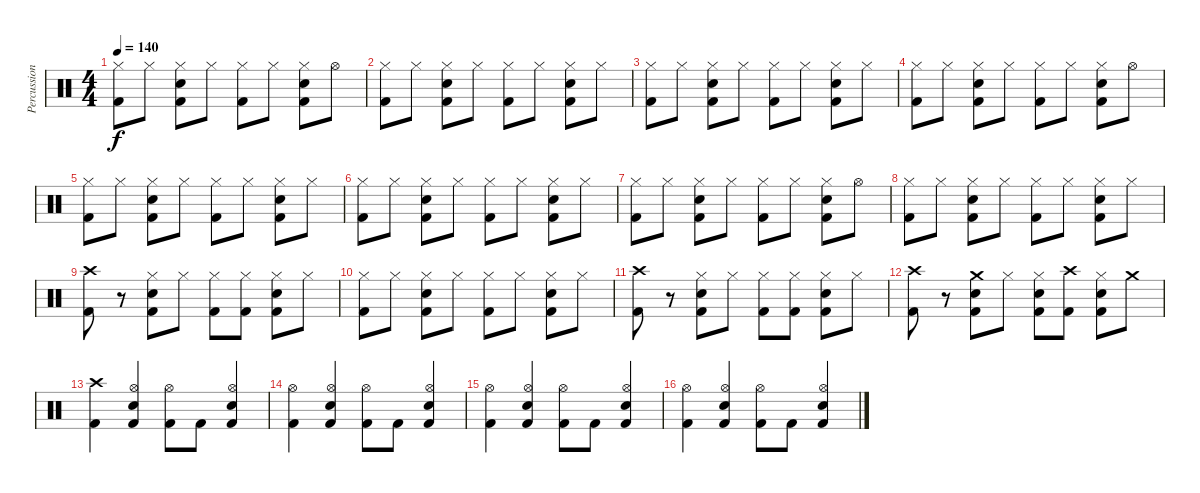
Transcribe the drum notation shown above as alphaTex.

\track ("Percussions" "Percussion") {instrument percussion}
\staff {score}
\articulation defaults
\ts (4 4)
\tempo 140
\clef neutral
\ks c
("Hi-Hat (closed)" "Kick (hit) 2").8{dy f} "Hi-Hat (closed)".8 ("Hi-Hat (closed)" "Snare (hit) 2" "Kick (hit) 2").8 "Hi-Hat (closed)".8 ("Hi-Hat (closed)" "Kick (hit) 2").8 "Hi-Hat (closed)".8 ("Hi-Hat (closed)" "Snare (hit) 2" "Kick (hit) 2").8 "Hi-Hat (open)".8 |
("Hi-Hat (closed)" "Kick (hit) 2").8 "Hi-Hat (closed)".8 ("Hi-Hat (closed)" "Snare (hit) 2" "Kick (hit) 2").8 "Hi-Hat (closed)".8 ("Hi-Hat (closed)" "Kick (hit) 2").8 "Hi-Hat (closed)".8 ("Hi-Hat (closed)" "Snare (hit) 2" "Kick (hit) 2").8 "Hi-Hat (closed)".8 |
("Hi-Hat (closed)" "Kick (hit) 2").8 "Hi-Hat (closed)".8 ("Hi-Hat (closed)" "Snare (hit) 2" "Kick (hit) 2").8 "Hi-Hat (closed)".8 ("Hi-Hat (closed)" "Kick (hit) 2").8 "Hi-Hat (closed)".8 ("Hi-Hat (closed)" "Snare (hit) 2" "Kick (hit) 2").8 "Hi-Hat (closed)".8 |
("Hi-Hat (closed)" "Kick (hit) 2").8 "Hi-Hat (closed)".8 ("Hi-Hat (closed)" "Snare (hit) 2" "Kick (hit) 2").8 "Hi-Hat (closed)".8 ("Hi-Hat (closed)" "Kick (hit) 2").8 "Hi-Hat (closed)".8 ("Hi-Hat (closed)" "Snare (hit) 2" "Kick (hit) 2").8 "Hi-Hat (open)".8 |
("Hi-Hat (closed)" "Kick (hit) 2").8 "Hi-Hat (closed)".8 ("Hi-Hat (closed)" "Snare (hit) 2" "Kick (hit) 2").8 "Hi-Hat (closed)".8 ("Hi-Hat (closed)" "Kick (hit) 2").8 "Hi-Hat (closed)".8 ("Hi-Hat (closed)" "Snare (hit) 2" "Kick (hit) 2").8 "Hi-Hat (closed)".8 |
("Hi-Hat (closed)" "Kick (hit) 2").8 "Hi-Hat (closed)".8 ("Hi-Hat (closed)" "Snare (hit) 2" "Kick (hit) 2").8 "Hi-Hat (closed)".8 ("Hi-Hat (closed)" "Kick (hit) 2").8 "Hi-Hat (closed)".8 ("Hi-Hat (closed)" "Snare (hit) 2" "Kick (hit) 2").8 "Hi-Hat (closed)".8 |
("Hi-Hat (closed)" "Kick (hit) 2").8 "Hi-Hat (closed)".8 ("Hi-Hat (closed)" "Snare (hit) 2" "Kick (hit) 2").8 "Hi-Hat (closed)".8 ("Hi-Hat (closed)" "Kick (hit) 2").8 "Hi-Hat (closed)".8 ("Hi-Hat (closed)" "Snare (hit) 2" "Kick (hit) 2").8 "Hi-Hat (open)".8 |
("Hi-Hat (closed)" "Kick (hit) 2").8 "Hi-Hat (closed)".8 ("Hi-Hat (closed)" "Snare (hit) 2" "Kick (hit) 2").8 "Hi-Hat (closed)".8 ("Hi-Hat (closed)" "Kick (hit) 2").8 "Hi-Hat (closed)".8 ("Hi-Hat (closed)" "Snare (hit) 2" "Kick (hit) 2").8 "Hi-Hat (closed)".8 |
("Crash high (hit)" "Kick (hit) 2").8 r.8 ("Hi-Hat (closed)" "Snare (hit) 2" "Kick (hit) 2").8 "Hi-Hat (closed)".8 ("Hi-Hat (closed)" "Kick (hit) 2").8 ("Hi-Hat (closed)" "Kick (hit) 2").8 ("Hi-Hat (closed)" "Snare (hit) 2" "Kick (hit) 2").8 "Hi-Hat (closed)".8 |
("Hi-Hat (closed)" "Kick (hit) 2").8 "Hi-Hat (closed)".8 ("Hi-Hat (closed)" "Snare (hit) 2" "Kick (hit) 2").8 "Hi-Hat (closed)".8 ("Hi-Hat (closed)" "Kick (hit) 2").8 "Hi-Hat (closed)".8 ("Hi-Hat (closed)" "Snare (hit) 2" "Kick (hit) 2").8 "Hi-Hat (closed)".8 |
("Crash high (hit)" "Kick (hit) 2").8 r.8 ("Hi-Hat (closed)" "Snare (hit) 2" "Kick (hit) 2").8 "Hi-Hat (closed)".8 ("Hi-Hat (closed)" "Kick (hit) 2").8 ("Hi-Hat (closed)" "Kick (hit) 2").8 ("Hi-Hat (closed)" "Snare (hit) 2" "Kick (hit) 2").8 "Hi-Hat (closed)".8 |
("Crash high (hit)" "Kick (hit) 2").8 r.8 ("Crash medium (hit)" "Snare (hit) 2" "Kick (hit) 2").8 "Hi-Hat (closed)".8 ("Hi-Hat (closed)" "Snare (hit) 2" "Kick (hit) 2").8 ("Crash high (hit)" "Kick (hit) 2").8 ("Hi-Hat (closed)" "Snare (hit) 2" "Kick (hit) 2").8 "Crash medium (hit)".8 |
("Crash high (hit)" "Kick (hit) 2").4 ("Hi-Hat (open)" "Electric Snare (hit)" "Kick (hit) 2").4 ("Hi-Hat (open)" "Kick (hit) 2").8 "Kick (hit) 2".8 ("Hi-Hat (open)" "Electric Snare (hit)" "Kick (hit) 2").4 |
("Hi-Hat (open)" "Kick (hit) 2").4 ("Hi-Hat (open)" "Electric Snare (hit)" "Kick (hit) 2").4 ("Hi-Hat (open)" "Kick (hit) 2").8 "Kick (hit) 2".8 ("Hi-Hat (open)" "Electric Snare (hit)" "Kick (hit) 2").4 |
("Hi-Hat (open)" "Kick (hit) 2").4 ("Hi-Hat (open)" "Electric Snare (hit)" "Kick (hit) 2").4 ("Hi-Hat (open)" "Kick (hit) 2").8 "Kick (hit) 2".8 ("Hi-Hat (open)" "Electric Snare (hit)" "Kick (hit) 2").4 |
("Hi-Hat (open)" "Kick (hit) 2").4 ("Hi-Hat (open)" "Electric Snare (hit)" "Kick (hit) 2").4 ("Hi-Hat (open)" "Kick (hit) 2").8 "Kick (hit) 2".8 ("Hi-Hat (open)" "Electric Snare (hit)" "Kick (hit) 2").4
